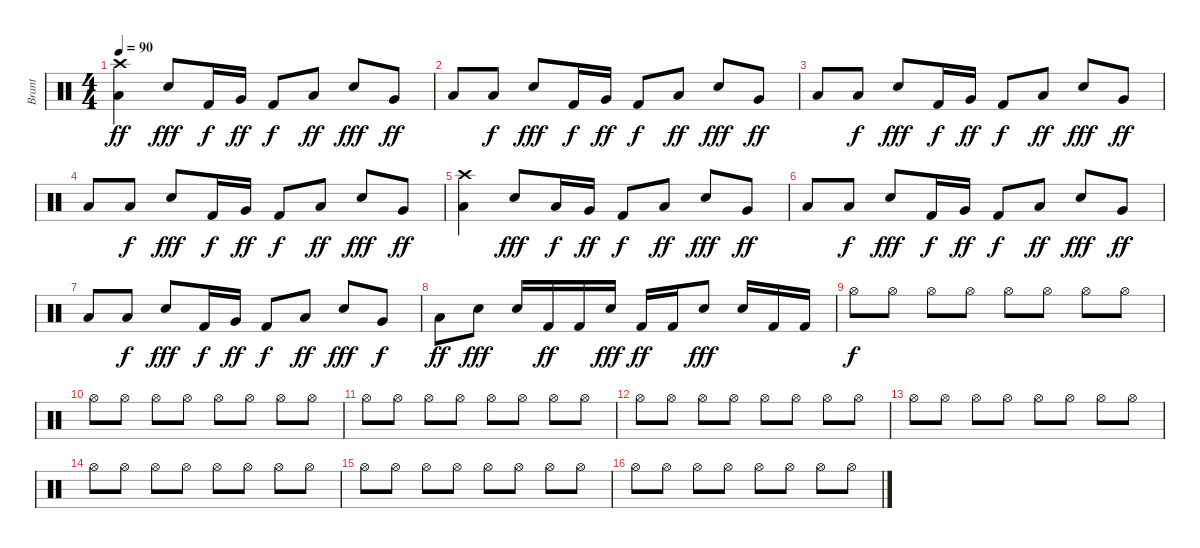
\track ("Brant" "Brant") {instrument percussion}
\staff {score}
\articulation defaults
\ts (4 4)
\tempo 90
\clef neutral
\ks c
("Crash high (hit)" "Low Floor Tom (hit)").4{dy ff} "Electric Snare (hit)".8{dy fff} "Kick (hit) 2".16{dy f} "Very Low Tom (hit)".16{dy ff} "Kick (hit) 2".8{dy f} "Low Floor Tom (hit)".8{dy ff} "Electric Snare (hit)".8{dy fff} "Very Low Tom (hit)".8{dy ff} |
"Low Floor Tom (hit)".8 "Low Floor Tom (hit)".8{dy f} "Electric Snare (hit)".8{dy fff} "Kick (hit) 2".16{dy f} "Very Low Tom (hit)".16{dy ff} "Kick (hit) 2".8{dy f} "Low Floor Tom (hit)".8{dy ff} "Electric Snare (hit)".8{dy fff} "Very Low Tom (hit)".8{dy ff} |
"Low Floor Tom (hit)".8 "Low Floor Tom (hit)".8{dy f} "Electric Snare (hit)".8{dy fff} "Kick (hit) 2".16{dy f} "Very Low Tom (hit)".16{dy ff} "Kick (hit) 2".8{dy f} "Low Floor Tom (hit)".8{dy ff} "Electric Snare (hit)".8{dy fff} "Very Low Tom (hit)".8{dy ff} |
"Low Floor Tom (hit)".8 "Low Floor Tom (hit)".8{dy f} "Electric Snare (hit)".8{dy fff} "Kick (hit) 2".16{dy f} "Very Low Tom (hit)".16{dy ff} "Kick (hit) 2".8{dy f} "Low Floor Tom (hit)".8{dy ff} "Electric Snare (hit)".8{dy fff} "Very Low Tom (hit)".8{dy ff} |
("Crash high (hit)" "Low Floor Tom (hit)").4 "Electric Snare (hit)".8{dy fff} "Low Floor Tom (hit)".16{dy f} "Very Low Tom (hit)".16{dy ff} "Kick (hit) 2".8{dy f} "Low Floor Tom (hit)".8{dy ff} "Electric Snare (hit)".8{dy fff} "Very Low Tom (hit)".8{dy ff} |
"Low Floor Tom (hit)".8 "Low Floor Tom (hit)".8{dy f} "Electric Snare (hit)".8{dy fff} "Kick (hit) 2".16{dy f} "Very Low Tom (hit)".16{dy ff} "Kick (hit) 2".8{dy f} "Low Floor Tom (hit)".8{dy ff} "Electric Snare (hit)".8{dy fff} "Very Low Tom (hit)".8{dy ff} |
"Low Floor Tom (hit)".8 "Low Floor Tom (hit)".8{dy f} "Electric Snare (hit)".8{dy fff} "Kick (hit) 2".16{dy f} "Very Low Tom (hit)".16{dy ff} "Kick (hit) 2".8{dy f} "Low Floor Tom (hit)".8{dy ff} "Electric Snare (hit)".8{dy fff} "Very Low Tom (hit)".8{dy f} |
"Low Floor Tom (hit)".8{dy ff} "Electric Snare (hit)".8{dy fff} "Electric Snare (hit)".16 "Kick (hit) 2".16{dy ff} "Kick (hit) 2".16 "Electric Snare (hit)".16{dy fff} "Kick (hit) 2".16{dy ff} "Kick (hit) 2".16 "Electric Snare (hit)".8{dy fff} "Electric Snare (hit)".16 "Kick (hit) 2".16 "Kick (hit) 2".16 |
"Hi-Hat (open)".8{dy f} "Hi-Hat (open)".8 "Hi-Hat (open)".8 "Hi-Hat (open)".8 "Hi-Hat (open)".8 "Hi-Hat (open)".8 "Hi-Hat (open)".8 "Hi-Hat (open)".8 |
"Hi-Hat (open)".8 "Hi-Hat (open)".8 "Hi-Hat (open)".8 "Hi-Hat (open)".8 "Hi-Hat (open)".8 "Hi-Hat (open)".8 "Hi-Hat (open)".8 "Hi-Hat (open)".8 |
"Hi-Hat (open)".8 "Hi-Hat (open)".8 "Hi-Hat (open)".8 "Hi-Hat (open)".8 "Hi-Hat (open)".8 "Hi-Hat (open)".8 "Hi-Hat (open)".8 "Hi-Hat (open)".8 |
"Hi-Hat (open)".8 "Hi-Hat (open)".8 "Hi-Hat (open)".8 "Hi-Hat (open)".8 "Hi-Hat (open)".8 "Hi-Hat (open)".8 "Hi-Hat (open)".8 "Hi-Hat (open)".8 |
"Hi-Hat (open)".8 "Hi-Hat (open)".8 "Hi-Hat (open)".8 "Hi-Hat (open)".8 "Hi-Hat (open)".8 "Hi-Hat (open)".8 "Hi-Hat (open)".8 "Hi-Hat (open)".8 |
"Hi-Hat (open)".8 "Hi-Hat (open)".8 "Hi-Hat (open)".8 "Hi-Hat (open)".8 "Hi-Hat (open)".8 "Hi-Hat (open)".8 "Hi-Hat (open)".8 "Hi-Hat (open)".8 |
"Hi-Hat (open)".8 "Hi-Hat (open)".8 "Hi-Hat (open)".8 "Hi-Hat (open)".8 "Hi-Hat (open)".8 "Hi-Hat (open)".8 "Hi-Hat (open)".8 "Hi-Hat (open)".8 |
"Hi-Hat (open)".8 "Hi-Hat (open)".8 "Hi-Hat (open)".8 "Hi-Hat (open)".8 "Hi-Hat (open)".8 "Hi-Hat (open)".8 "Hi-Hat (open)".8 "Hi-Hat (open)".8
